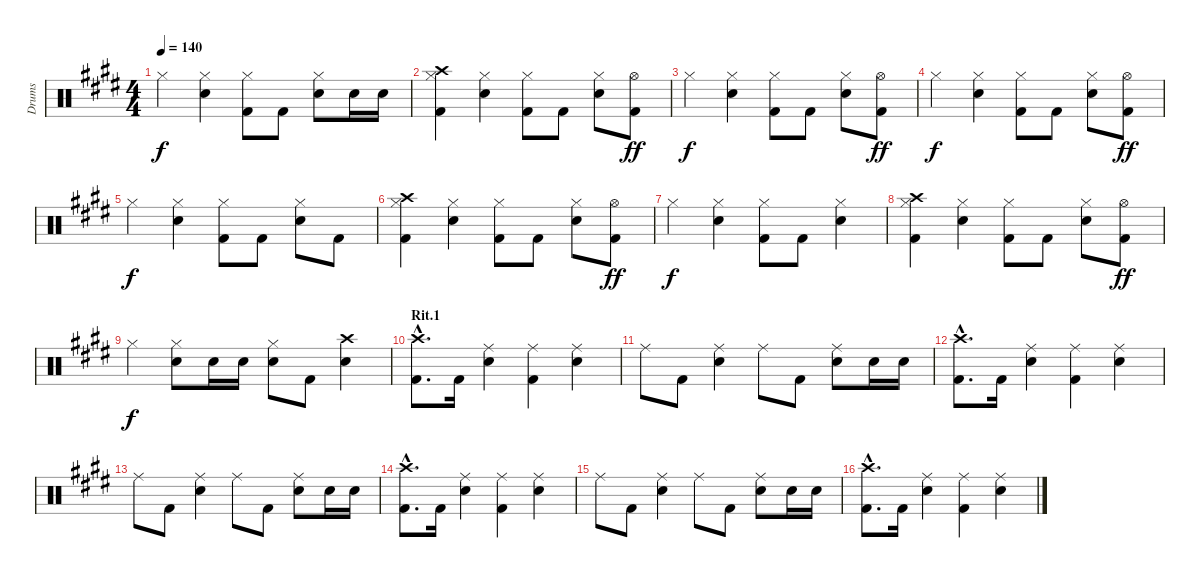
\track ("Drums" "Drums") {instrument percussion}
\staff {score}
\articulation defaults
\ts (4 4)
\tempo 140
\clef neutral
\ks c#minor "Hi-Hat (closed)".4{dy f}
("Hi-Hat (closed)" "Snare (hit) 2").4 ("Hi-Hat (closed)" "Kick (hit) 2").8 "Kick (hit) 2".8 ("Hi-Hat (closed)" "Snare (hit) 2").8 "Snare (hit) 2".16 "Snare (hit) 2".16 |
("Hi-Hat (closed)" "Crash high (hit)" "Kick (hit) 2").4 ("Hi-Hat (closed)" "Snare (hit) 2").4 ("Hi-Hat (closed)" "Kick (hit) 2").8 "Kick (hit) 2".8 ("Hi-Hat (closed)" "Snare (hit) 2").8 ("Hi-Hat (open)" "Kick (hit) 2").8{dy ff} |
"Hi-Hat (closed)".4{dy f} ("Hi-Hat (closed)" "Snare (hit) 2").4 ("Hi-Hat (closed)" "Kick (hit) 2").8 "Kick (hit) 2".8 ("Hi-Hat (closed)" "Snare (hit) 2").8 ("Hi-Hat (open)" "Kick (hit) 2").8{dy ff} |
"Hi-Hat (closed)".4{dy f} ("Hi-Hat (closed)" "Snare (hit) 2").4 ("Hi-Hat (closed)" "Kick (hit) 2").8 "Kick (hit) 2".8 ("Hi-Hat (closed)" "Snare (hit) 2").8 ("Hi-Hat (open)" "Kick (hit) 2").8{dy ff} |
"Hi-Hat (closed)".4{dy f} ("Hi-Hat (closed)" "Snare (hit) 2").4 ("Hi-Hat (closed)" "Kick (hit) 2").8 "Kick (hit) 2".8 ("Hi-Hat (closed)" "Snare (hit) 2").8 "Kick (hit) 2".8 |
("Hi-Hat (closed)" "Crash high (hit)" "Kick (hit) 2").4 ("Hi-Hat (closed)" "Snare (hit) 2").4 ("Hi-Hat (closed)" "Kick (hit) 2").8 "Kick (hit) 2".8 ("Hi-Hat (closed)" "Snare (hit) 2").8 ("Hi-Hat (open)" "Kick (hit) 2").8{dy ff} |
"Hi-Hat (closed)".4{dy f} ("Hi-Hat (closed)" "Snare (hit) 2").4 ("Hi-Hat (closed)" "Kick (hit) 2").8 "Kick (hit) 2".8 ("Hi-Hat (closed)" "Snare (hit) 2").4 |
("Hi-Hat (closed)" "Crash high (hit)" "Kick (hit) 2").4 ("Hi-Hat (closed)" "Snare (hit) 2").4 ("Hi-Hat (closed)" "Kick (hit) 2").8 "Kick (hit) 2".8 ("Hi-Hat (closed)" "Snare (hit) 2").8 ("Hi-Hat (open)" "Kick (hit) 2").8{dy ff} |
"Hi-Hat (closed)".4{dy f} ("Hi-Hat (closed)" "Snare (hit) 2").8 "Snare (hit) 2".16 "Snare (hit) 2".16 ("Hi-Hat (closed)" "Snare (hit) 2").8 "Kick (hit) 2".8 ("Crash high (hit)" "Snare (hit) 2").4 |
\section ("" "Rit.1")
("Crash high (hit)" "Kick (hit) 2"{hac}).8{d} "Kick (hit) 2".16 ("Ride (middle)" "Snare (hit) 2").4 ("Ride (middle)" "Kick (hit) 2").4 ("Ride (middle)" "Snare (hit) 2").4 |
"Ride (middle)".8 "Kick (hit) 2".8 ("Ride (middle)" "Snare (hit) 2").4 "Ride (middle)".8 "Kick (hit) 2".8 ("Ride (middle)" "Snare (hit) 2").8 "Snare (hit) 2".16 "Snare (hit) 2".16 |
("Crash high (hit)" "Kick (hit) 2"{hac}).8{d} "Kick (hit) 2".16 ("Ride (middle)" "Snare (hit) 2").4 ("Ride (middle)" "Kick (hit) 2").4 ("Ride (middle)" "Snare (hit) 2").4 |
"Ride (middle)".8 "Kick (hit) 2".8 ("Ride (middle)" "Snare (hit) 2").4 "Ride (middle)".8 "Kick (hit) 2".8 ("Ride (middle)" "Snare (hit) 2").8 "Snare (hit) 2".16 "Snare (hit) 2".16 |
("Crash high (hit)"{hac} "Kick (hit) 2"{hac}).8{d} "Kick (hit) 2".16 ("Ride (middle)" "Snare (hit) 2").4 ("Ride (middle)" "Kick (hit) 2").4 ("Ride (middle)" "Snare (hit) 2").4 |
"Ride (middle)".8 "Kick (hit) 2".8 ("Ride (middle)" "Snare (hit) 2").4 "Ride (middle)".8 "Kick (hit) 2".8 ("Ride (middle)" "Snare (hit) 2").8 "Snare (hit) 2".16 "Snare (hit) 2".16 |
("Crash high (hit)" "Kick (hit) 2"{hac}).8{d} "Kick (hit) 2".16 ("Ride (middle)" "Snare (hit) 2").4 ("Ride (middle)" "Kick (hit) 2").4 ("Ride (middle)" "Snare (hit) 2").4
